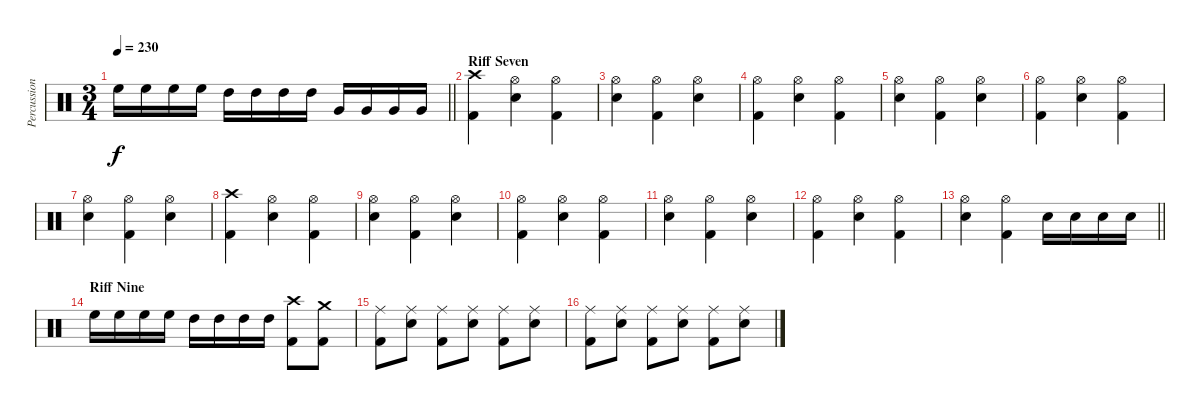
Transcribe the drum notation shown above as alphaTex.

\track ("Percussion" "Percussion") {instrument percussion}
\staff {score}
\articulation defaults
\ts (3 4)
\tempo 230
\clef neutral
\barLineRight lightlight
\ks c "High Floor Tom (hit)".16{dy f} "High Floor Tom (hit)".16 "High Floor Tom (hit)".16 "High Floor Tom (hit)".16 "High Tom (hit)".16 "High Tom (hit)".16 "High Tom (hit)".16 "High Tom (hit)".16 "Very Low Tom (hit)".16 "Very Low Tom (hit)".16 "Very Low Tom (hit)".16 "Very Low Tom (hit)".16
|
\section ("" "Riff Seven")
("Crash high (hit)" "Kick (hit) 2").4 ("Hi-Hat (open)" "Electric Snare (hit)").4 ("Hi-Hat (open)" "Kick (hit) 2").4 |
("Hi-Hat (open)" "Electric Snare (hit)").4 ("Hi-Hat (open)" "Kick (hit) 2").4 ("Hi-Hat (open)" "Electric Snare (hit)").4 |
("Hi-Hat (open)" "Kick (hit) 2").4 ("Hi-Hat (open)" "Electric Snare (hit)").4 ("Hi-Hat (open)" "Kick (hit) 2").4 |
("Hi-Hat (open)" "Electric Snare (hit)").4 ("Hi-Hat (open)" "Kick (hit) 2").4 ("Hi-Hat (open)" "Electric Snare (hit)").4 |
("Hi-Hat (open)" "Kick (hit) 2").4 ("Hi-Hat (open)" "Electric Snare (hit)").4 ("Hi-Hat (open)" "Kick (hit) 2").4 |
("Hi-Hat (open)" "Electric Snare (hit)").4 ("Hi-Hat (open)" "Kick (hit) 2").4 ("Hi-Hat (open)" "Electric Snare (hit)").4 |
("Crash high (hit)" "Kick (hit) 2").4 ("Hi-Hat (open)" "Electric Snare (hit)").4 ("Hi-Hat (open)" "Kick (hit) 2").4 |
("Hi-Hat (open)" "Electric Snare (hit)").4 ("Hi-Hat (open)" "Kick (hit) 2").4 ("Hi-Hat (open)" "Electric Snare (hit)").4 |
("Hi-Hat (open)" "Kick (hit) 2").4 ("Hi-Hat (open)" "Electric Snare (hit)").4 ("Hi-Hat (open)" "Kick (hit) 2").4 |
("Hi-Hat (open)" "Electric Snare (hit)").4 ("Hi-Hat (open)" "Kick (hit) 2").4 ("Hi-Hat (open)" "Electric Snare (hit)").4 |
("Hi-Hat (open)" "Kick (hit) 2").4 ("Hi-Hat (open)" "Electric Snare (hit)").4 ("Hi-Hat (open)" "Kick (hit) 2").4 |
\barLineRight lightlight
("Hi-Hat (open)" "Electric Snare (hit)").4 ("Hi-Hat (open)" "Kick (hit) 2").4 "Electric Snare (hit)".16 "Electric Snare (hit)".16 "Electric Snare (hit)".16 "Electric Snare (hit)".16 |
\section ("" "Riff Nine")
"High Floor Tom (hit)".16 "High Floor Tom (hit)".16 "High Floor Tom (hit)".16 "High Floor Tom (hit)".16 "High Tom (hit)".16 "High Tom (hit)".16 "High Tom (hit)".16 "High Tom (hit)".16 ("Crash high (hit)" "Kick (hit) 2").8 ("Crash medium (hit)" "Kick (hit) 2").8 |
("Ride (middle)" "Kick (hit) 2").8 ("Ride (middle)" "Electric Snare (hit)").8 ("Ride (middle)" "Kick (hit) 2").8 ("Ride (middle)" "Electric Snare (hit)").8 ("Ride (middle)" "Kick (hit) 2").8 ("Ride (middle)" "Electric Snare (hit)").8 |
("Ride (middle)" "Kick (hit) 2").8 ("Ride (middle)" "Electric Snare (hit)").8 ("Ride (middle)" "Kick (hit) 2").8 ("Ride (middle)" "Electric Snare (hit)").8 ("Ride (middle)" "Kick (hit) 2").8 ("Ride (middle)" "Electric Snare (hit)").8
